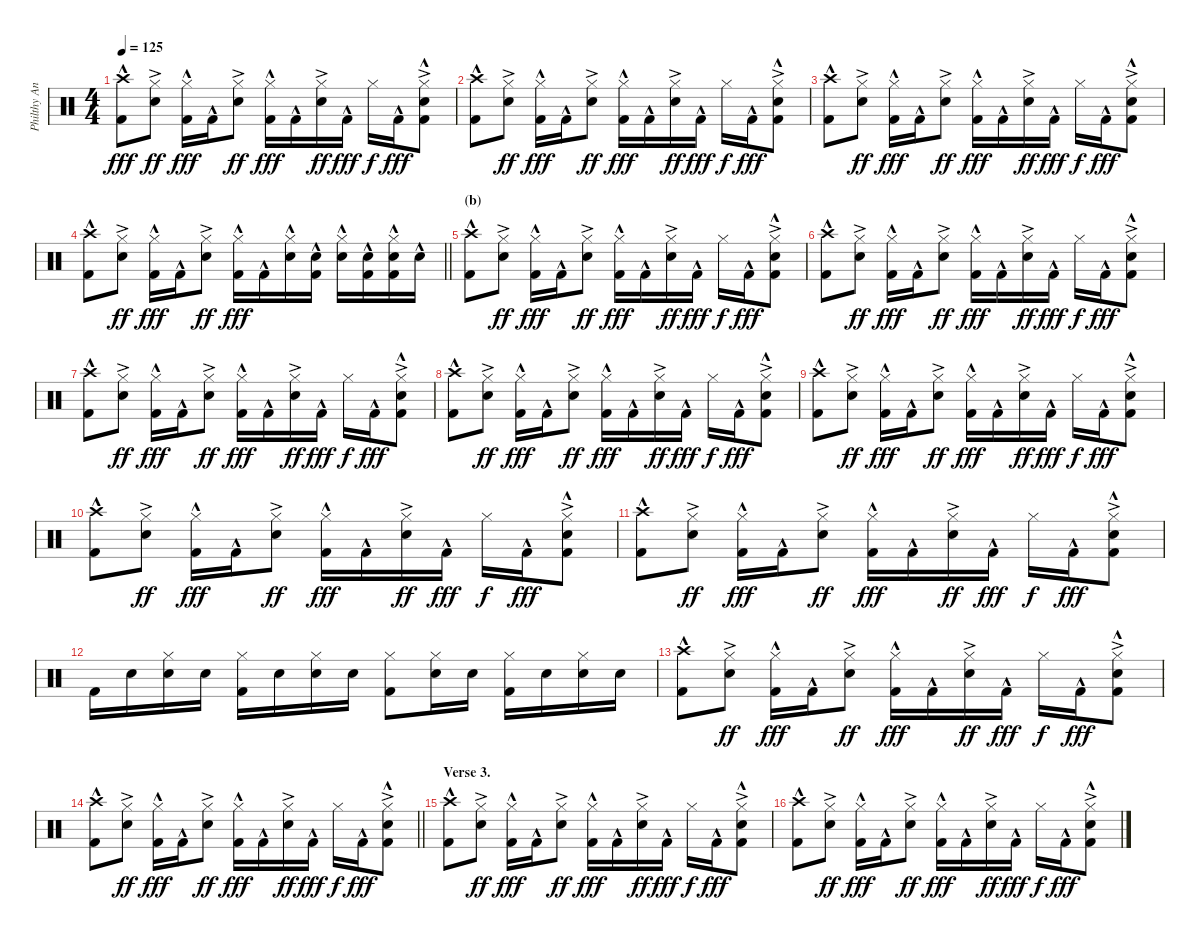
\track ("Philthy Animal Taylor" "Philthy An") {instrument percussion}
\staff {score}
\articulation defaults
\ts (4 4)
\tempo 125
\clef neutral
\ks c
("Crash high (hit)" "Kick (hit) 2"{hac}).8{dy fff} ("Hi-Hat (closed)" "Electric Snare (hit)"{ac}).8{dy ff} ("Hi-Hat (closed)" "Kick (hit) 2"{hac}).16{dy fff} "Kick (hit) 2"{hac}.16 ("Hi-Hat (closed)" "Electric Snare (hit)"{ac}).8{dy ff} ("Hi-Hat (closed)" "Kick (hit) 2"{hac}).16{dy fff} "Kick (hit) 2"{hac}.16 ("Hi-Hat (closed)" "Electric Snare (hit)"{ac}).16{dy ff} "Kick (hit) 2"{hac}.16{dy fff} "Hi-Hat (closed)".16{dy f} "Kick (hit) 2"{hac}.16{dy fff} ("Hi-Hat (closed)" "Electric Snare (hit)"{ac} "Kick (hit) 2"{hac}).8 |
("Crash high (hit)" "Kick (hit) 2"{hac}).8 ("Hi-Hat (closed)" "Electric Snare (hit)"{ac}).8{dy ff} ("Hi-Hat (closed)" "Kick (hit) 2"{hac}).16{dy fff} "Kick (hit) 2"{hac}.16 ("Hi-Hat (closed)" "Electric Snare (hit)"{ac}).8{dy ff} ("Hi-Hat (closed)" "Kick (hit) 2"{hac}).16{dy fff} "Kick (hit) 2"{hac}.16 ("Hi-Hat (closed)" "Electric Snare (hit)"{ac}).16{dy ff} "Kick (hit) 2"{hac}.16{dy fff} "Hi-Hat (closed)".16{dy f} "Kick (hit) 2"{hac}.16{dy fff} ("Hi-Hat (closed)" "Electric Snare (hit)"{ac} "Kick (hit) 2"{hac}).8 |
("Crash high (hit)" "Kick (hit) 2"{hac}).8 ("Hi-Hat (closed)" "Electric Snare (hit)"{ac}).8{dy ff} ("Hi-Hat (closed)" "Kick (hit) 2"{hac}).16{dy fff} "Kick (hit) 2"{hac}.16 ("Hi-Hat (closed)" "Electric Snare (hit)"{ac}).8{dy ff} ("Hi-Hat (closed)" "Kick (hit) 2"{hac}).16{dy fff} "Kick (hit) 2"{hac}.16 ("Hi-Hat (closed)" "Electric Snare (hit)"{ac}).16{dy ff} "Kick (hit) 2"{hac}.16{dy fff} "Hi-Hat (closed)".16{dy f} "Kick (hit) 2"{hac}.16{dy fff} ("Hi-Hat (closed)" "Electric Snare (hit)"{ac} "Kick (hit) 2"{hac}).8 |
\barLineRight lightlight
("Crash high (hit)" "Kick (hit) 2"{hac}).8 ("Hi-Hat (closed)" "Electric Snare (hit)"{ac}).8{dy ff} ("Hi-Hat (closed)" "Kick (hit) 2"{hac}).16{dy fff} "Kick (hit) 2"{hac}.16 ("Hi-Hat (closed)" "Electric Snare (hit)"{ac}).8{dy ff} ("Hi-Hat (closed)" "Kick (hit) 2"{hac}).16{dy fff} "Kick (hit) 2"{hac}.16 ("Hi-Hat (closed)" "Electric Snare (hit)"{hac}).16 ("Electric Snare (hit)"{hac} "Kick (hit) 2"{hac}).16 ("Hi-Hat (closed)" "Electric Snare (hit)"{hac}).16 ("Electric Snare (hit)"{hac} "Kick (hit) 2"{hac}).16 ("Hi-Hat (closed)" "Electric Snare (hit)"{hac} "Kick (hit) 2"{hac}).16 "Electric Snare (hit)"{hac}.16 |
\section ("" "(b)")
("Crash high (hit)" "Kick (hit) 2"{hac}).8 ("Hi-Hat (closed)" "Electric Snare (hit)"{ac}).8{dy ff} ("Hi-Hat (closed)" "Kick (hit) 2"{hac}).16{dy fff} "Kick (hit) 2"{hac}.16 ("Hi-Hat (closed)" "Electric Snare (hit)"{ac}).8{dy ff} ("Hi-Hat (closed)" "Kick (hit) 2"{hac}).16{dy fff} "Kick (hit) 2"{hac}.16 ("Hi-Hat (closed)" "Electric Snare (hit)"{ac}).16{dy ff} "Kick (hit) 2"{hac}.16{dy fff} "Hi-Hat (closed)".16{dy f} "Kick (hit) 2"{hac}.16{dy fff} ("Hi-Hat (closed)" "Electric Snare (hit)"{ac} "Kick (hit) 2"{hac}).8 |
("Crash high (hit)" "Kick (hit) 2"{hac}).8 ("Hi-Hat (closed)" "Electric Snare (hit)"{ac}).8{dy ff} ("Hi-Hat (closed)" "Kick (hit) 2"{hac}).16{dy fff} "Kick (hit) 2"{hac}.16 ("Hi-Hat (closed)" "Electric Snare (hit)"{ac}).8{dy ff} ("Hi-Hat (closed)" "Kick (hit) 2"{hac}).16{dy fff} "Kick (hit) 2"{hac}.16 ("Hi-Hat (closed)" "Electric Snare (hit)"{ac}).16{dy ff} "Kick (hit) 2"{hac}.16{dy fff} "Hi-Hat (closed)".16{dy f} "Kick (hit) 2"{hac}.16{dy fff} ("Hi-Hat (closed)" "Electric Snare (hit)"{ac} "Kick (hit) 2"{hac}).8 |
("Crash high (hit)" "Kick (hit) 2"{hac}).8 ("Hi-Hat (closed)" "Electric Snare (hit)"{ac}).8{dy ff} ("Hi-Hat (closed)" "Kick (hit) 2"{hac}).16{dy fff} "Kick (hit) 2"{hac}.16 ("Hi-Hat (closed)" "Electric Snare (hit)"{ac}).8{dy ff} ("Hi-Hat (closed)" "Kick (hit) 2"{hac}).16{dy fff} "Kick (hit) 2"{hac}.16 ("Hi-Hat (closed)" "Electric Snare (hit)"{ac}).16{dy ff} "Kick (hit) 2"{hac}.16{dy fff} "Hi-Hat (closed)".16{dy f} "Kick (hit) 2"{hac}.16{dy fff} ("Hi-Hat (closed)" "Electric Snare (hit)"{ac} "Kick (hit) 2"{hac}).8 |
("Crash high (hit)" "Kick (hit) 2"{hac}).8 ("Hi-Hat (closed)" "Electric Snare (hit)"{ac}).8{dy ff} ("Hi-Hat (closed)" "Kick (hit) 2"{hac}).16{dy fff} "Kick (hit) 2"{hac}.16 ("Hi-Hat (closed)" "Electric Snare (hit)"{ac}).8{dy ff} ("Hi-Hat (closed)" "Kick (hit) 2"{hac}).16{dy fff} "Kick (hit) 2"{hac}.16 ("Hi-Hat (closed)" "Electric Snare (hit)"{ac}).16{dy ff} "Kick (hit) 2"{hac}.16{dy fff} "Hi-Hat (closed)".16{dy f} "Kick (hit) 2"{hac}.16{dy fff} ("Hi-Hat (closed)" "Electric Snare (hit)"{ac} "Kick (hit) 2"{hac}).8 |
("Crash high (hit)" "Kick (hit) 2"{hac}).8 ("Hi-Hat (closed)" "Electric Snare (hit)"{ac}).8{dy ff} ("Hi-Hat (closed)" "Kick (hit) 2"{hac}).16{dy fff} "Kick (hit) 2"{hac}.16 ("Hi-Hat (closed)" "Electric Snare (hit)"{ac}).8{dy ff} ("Hi-Hat (closed)" "Kick (hit) 2"{hac}).16{dy fff} "Kick (hit) 2"{hac}.16 ("Hi-Hat (closed)" "Electric Snare (hit)"{ac}).16{dy ff} "Kick (hit) 2"{hac}.16{dy fff} "Hi-Hat (closed)".16{dy f} "Kick (hit) 2"{hac}.16{dy fff} ("Hi-Hat (closed)" "Electric Snare (hit)"{ac} "Kick (hit) 2"{hac}).8 |
("Crash high (hit)" "Kick (hit) 2"{hac}).8 ("Hi-Hat (closed)" "Electric Snare (hit)"{ac}).8{dy ff} ("Hi-Hat (closed)" "Kick (hit) 2"{hac}).16{dy fff} "Kick (hit) 2"{hac}.16 ("Hi-Hat (closed)" "Electric Snare (hit)"{ac}).8{dy ff} ("Hi-Hat (closed)" "Kick (hit) 2"{hac}).16{dy fff} "Kick (hit) 2"{hac}.16 ("Hi-Hat (closed)" "Electric Snare (hit)"{ac}).16{dy ff} "Kick (hit) 2"{hac}.16{dy fff} "Hi-Hat (closed)".16{dy f} "Kick (hit) 2"{hac}.16{dy fff} ("Hi-Hat (closed)" "Electric Snare (hit)"{ac} "Kick (hit) 2"{hac}).8 |
("Crash high (hit)" "Kick (hit) 2"{hac}).8 ("Hi-Hat (closed)" "Electric Snare (hit)"{ac}).8{dy ff} ("Hi-Hat (closed)" "Kick (hit) 2"{hac}).16{dy fff} "Kick (hit) 2"{hac}.16 ("Hi-Hat (closed)" "Electric Snare (hit)"{ac}).8{dy ff} ("Hi-Hat (closed)" "Kick (hit) 2"{hac}).16{dy fff} "Kick (hit) 2"{hac}.16 ("Hi-Hat (closed)" "Electric Snare (hit)"{ac}).16{dy ff} "Kick (hit) 2"{hac}.16{dy fff} "Hi-Hat (closed)".16{dy f} "Kick (hit) 2"{hac}.16{dy fff} ("Hi-Hat (closed)" "Electric Snare (hit)"{ac} "Kick (hit) 2"{hac}).8 |
"Kick (hit) 2".16 "Electric Snare (hit)".16 ("Hi-Hat (closed)" "Electric Snare (hit)").16 "Electric Snare (hit)".16 ("Hi-Hat (closed)" "Kick (hit) 2").16 "Electric Snare (hit)".16 ("Hi-Hat (closed)" "Electric Snare (hit)").16 "Electric Snare (hit)".16 ("Hi-Hat (closed)" "Kick (hit) 2").8 ("Hi-Hat (closed)" "Electric Snare (hit)").16 "Electric Snare (hit)".16 ("Hi-Hat (closed)" "Kick (hit) 2").16 "Electric Snare (hit)".16 ("Hi-Hat (closed)" "Electric Snare (hit)").16 "Electric Snare (hit)".16 |
("Crash high (hit)" "Kick (hit) 2"{hac}).8 ("Hi-Hat (closed)" "Electric Snare (hit)"{ac}).8{dy ff} ("Hi-Hat (closed)" "Kick (hit) 2"{hac}).16{dy fff} "Kick (hit) 2"{hac}.16 ("Hi-Hat (closed)" "Electric Snare (hit)"{ac}).8{dy ff} ("Hi-Hat (closed)" "Kick (hit) 2"{hac}).16{dy fff} "Kick (hit) 2"{hac}.16 ("Hi-Hat (closed)" "Electric Snare (hit)"{ac}).16{dy ff} "Kick (hit) 2"{hac}.16{dy fff} "Hi-Hat (closed)".16{dy f} "Kick (hit) 2"{hac}.16{dy fff} ("Hi-Hat (closed)" "Electric Snare (hit)"{ac} "Kick (hit) 2"{hac}).8 |
\barLineRight lightlight
("Crash high (hit)" "Kick (hit) 2"{hac}).8 ("Hi-Hat (closed)" "Electric Snare (hit)"{ac}).8{dy ff} ("Hi-Hat (closed)" "Kick (hit) 2"{hac}).16{dy fff} "Kick (hit) 2"{hac}.16 ("Hi-Hat (closed)" "Electric Snare (hit)"{ac}).8{dy ff} ("Hi-Hat (closed)" "Kick (hit) 2"{hac}).16{dy fff} "Kick (hit) 2"{hac}.16 ("Hi-Hat (closed)" "Electric Snare (hit)"{ac}).16{dy ff} "Kick (hit) 2"{hac}.16{dy fff} "Hi-Hat (closed)".16{dy f} "Kick (hit) 2"{hac}.16{dy fff} ("Hi-Hat (closed)" "Electric Snare (hit)"{ac} "Kick (hit) 2"{hac}).8 |
\section ("" "Verse 3.")
("Crash high (hit)" "Kick (hit) 2"{hac}).8 ("Hi-Hat (closed)" "Electric Snare (hit)"{ac}).8{dy ff} ("Hi-Hat (closed)" "Kick (hit) 2"{hac}).16{dy fff} "Kick (hit) 2"{hac}.16 ("Hi-Hat (closed)" "Electric Snare (hit)"{ac}).8{dy ff} ("Hi-Hat (closed)" "Kick (hit) 2"{hac}).16{dy fff} "Kick (hit) 2"{hac}.16 ("Hi-Hat (closed)" "Electric Snare (hit)"{ac}).16{dy ff} "Kick (hit) 2"{hac}.16{dy fff} "Hi-Hat (closed)".16{dy f} "Kick (hit) 2"{hac}.16{dy fff} ("Hi-Hat (closed)" "Electric Snare (hit)"{ac} "Kick (hit) 2"{hac}).8 |
("Crash high (hit)" "Kick (hit) 2"{hac}).8 ("Hi-Hat (closed)" "Electric Snare (hit)"{ac}).8{dy ff} ("Hi-Hat (closed)" "Kick (hit) 2"{hac}).16{dy fff} "Kick (hit) 2"{hac}.16 ("Hi-Hat (closed)" "Electric Snare (hit)"{ac}).8{dy ff} ("Hi-Hat (closed)" "Kick (hit) 2"{hac}).16{dy fff} "Kick (hit) 2"{hac}.16 ("Hi-Hat (closed)" "Electric Snare (hit)"{ac}).16{dy ff} "Kick (hit) 2"{hac}.16{dy fff} "Hi-Hat (closed)".16{dy f} "Kick (hit) 2"{hac}.16{dy fff} ("Hi-Hat (closed)" "Electric Snare (hit)"{ac} "Kick (hit) 2"{hac}).8
